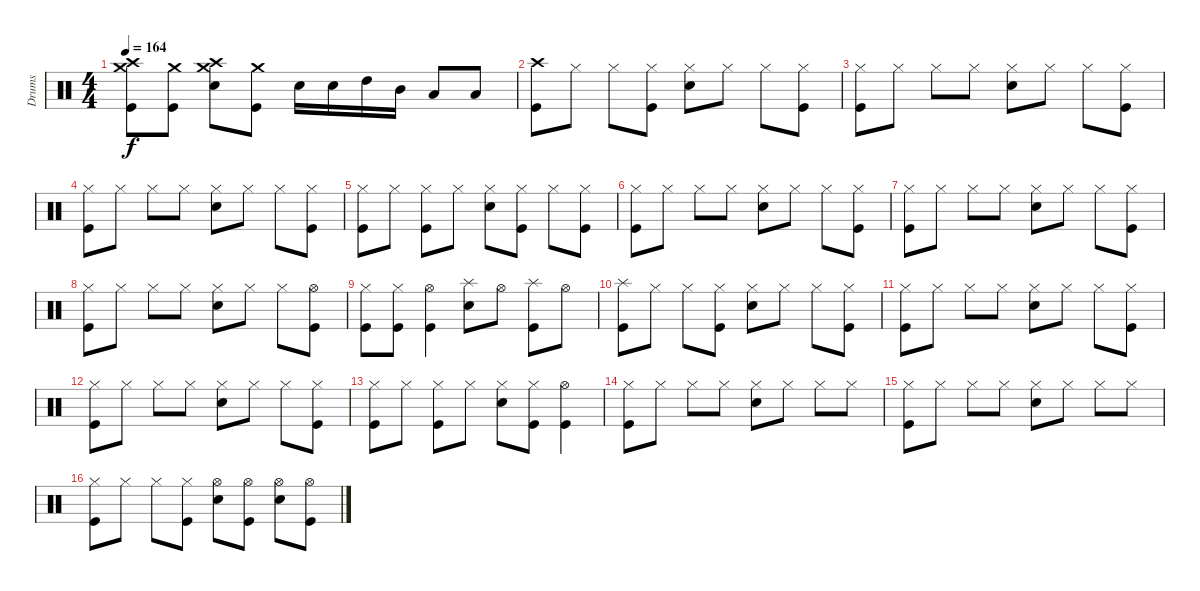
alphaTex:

\track ("Drums" "Drums") {instrument percussion}
\staff {score}
\articulation defaults
\ts (4 4)
\tempo 164
\clef neutral
\ks c
("Crash medium (hit)" "Kick (hit)" "Crash high (hit)").8{dy f} ("Crash medium (hit)" "Kick (hit)").8 ("Snare (hit) 2" "Crash medium (hit)" "Crash high (hit)").8 ("Crash medium (hit)" "Kick (hit)").8 "Snare (hit) 2".16 "Snare (hit) 2".16 "High Tom (hit)".16 "Mid Tom (hit)".16 "Low Tom (hit)".8 "Low Floor Tom (hit)".8 |
("Crash high (hit)" "Kick (hit)").8 "Hi-Hat (closed)".8 "Hi-Hat (closed)".8 ("Hi-Hat (closed)" "Kick (hit)").8 ("Snare (hit) 2" "Hi-Hat (closed)").8 "Hi-Hat (closed)".8 "Hi-Hat (closed)".8 ("Hi-Hat (closed)" "Kick (hit)").8 |
("Hi-Hat (closed)" "Kick (hit)").8 "Hi-Hat (closed)".8 "Hi-Hat (closed)".8 "Hi-Hat (closed)".8 ("Snare (hit) 2" "Hi-Hat (closed)").8 "Hi-Hat (closed)".8 "Hi-Hat (closed)".8 ("Hi-Hat (closed)" "Kick (hit)").8 |
("Hi-Hat (closed)" "Kick (hit)").8 "Hi-Hat (closed)".8 "Hi-Hat (closed)".8 "Hi-Hat (closed)".8 ("Snare (hit) 2" "Hi-Hat (closed)").8 "Hi-Hat (closed)".8 "Hi-Hat (closed)".8 ("Hi-Hat (closed)" "Kick (hit)").8 |
("Hi-Hat (closed)" "Kick (hit)").8 "Hi-Hat (closed)".8 ("Hi-Hat (closed)" "Kick (hit)").8 "Hi-Hat (closed)".8 ("Snare (hit) 2" "Hi-Hat (closed)").8 ("Hi-Hat (closed)" "Kick (hit)").8 "Hi-Hat (closed)".8 ("Hi-Hat (closed)" "Kick (hit)").8 |
("Hi-Hat (closed)" "Kick (hit)").8 "Hi-Hat (closed)".8 "Hi-Hat (closed)".8 "Hi-Hat (closed)".8 ("Snare (hit) 2" "Hi-Hat (closed)").8 "Hi-Hat (closed)".8 "Hi-Hat (closed)".8 ("Hi-Hat (closed)" "Kick (hit)").8 |
("Hi-Hat (closed)" "Kick (hit)").8 "Hi-Hat (closed)".8 "Hi-Hat (closed)".8 "Hi-Hat (closed)".8 ("Snare (hit) 2" "Hi-Hat (closed)").8 "Hi-Hat (closed)".8 "Hi-Hat (closed)".8 ("Hi-Hat (closed)" "Kick (hit)").8 |
("Hi-Hat (closed)" "Kick (hit)").8 "Hi-Hat (closed)".8 "Hi-Hat (closed)".8 "Hi-Hat (closed)".8 ("Snare (hit) 2" "Hi-Hat (closed)").8 "Hi-Hat (closed)".8 "Hi-Hat (closed)".8 ("Hi-Hat (open)" "Kick (hit)").8 |
("Hi-Hat (closed)" "Kick (hit)").8 ("Hi-Hat (closed)" "Kick (hit)").8 ("Hi-Hat (open)" "Kick (hit)").4 ("Snare (hit) 2" "Splash (hit)").8 "Hi-Hat (open)".8 ("Splash (hit)" "Kick (hit)").8 "Hi-Hat (open)".8 |
("Splash (hit)" "Kick (hit)").8 "Hi-Hat (closed)".8 "Hi-Hat (closed)".8 ("Hi-Hat (closed)" "Kick (hit)").8 ("Snare (hit) 2" "Hi-Hat (closed)").8 "Hi-Hat (closed)".8 "Hi-Hat (closed)".8 ("Hi-Hat (closed)" "Kick (hit)").8 |
("Hi-Hat (closed)" "Kick (hit)").8 "Hi-Hat (closed)".8 "Hi-Hat (closed)".8 "Hi-Hat (closed)".8 ("Snare (hit) 2" "Hi-Hat (closed)").8 "Hi-Hat (closed)".8 "Hi-Hat (closed)".8 ("Hi-Hat (closed)" "Kick (hit)").8 |
("Hi-Hat (closed)" "Kick (hit)").8 "Hi-Hat (closed)".8 "Hi-Hat (closed)".8 "Hi-Hat (closed)".8 ("Snare (hit) 2" "Hi-Hat (closed)").8 "Hi-Hat (closed)".8 "Hi-Hat (closed)".8 ("Hi-Hat (closed)" "Kick (hit)").8 |
("Hi-Hat (closed)" "Kick (hit)").8 "Hi-Hat (closed)".8 ("Hi-Hat (closed)" "Kick (hit)").8 "Hi-Hat (closed)".8 ("Snare (hit) 2" "Hi-Hat (closed)").8 ("Hi-Hat (closed)" "Kick (hit)").8 ("Hi-Hat (open)" "Kick (hit)").4 |
("Hi-Hat (closed)" "Kick (hit)").8 "Hi-Hat (closed)".8 "Hi-Hat (closed)".8 "Hi-Hat (closed)".8 ("Snare (hit) 2" "Hi-Hat (closed)").8 "Hi-Hat (closed)".8 "Hi-Hat (closed)".8 "Hi-Hat (closed)".8 |
("Hi-Hat (closed)" "Kick (hit)").8 "Hi-Hat (closed)".8 "Hi-Hat (closed)".8 "Hi-Hat (closed)".8 ("Snare (hit) 2" "Hi-Hat (closed)").8 "Hi-Hat (closed)".8 "Hi-Hat (closed)".8 "Hi-Hat (closed)".8 |
("Hi-Hat (closed)" "Kick (hit)").8 "Hi-Hat (closed)".8 "Hi-Hat (closed)".8 ("Hi-Hat (closed)" "Kick (hit)").8 ("Snare (hit) 2" "Hi-Hat (open)").8 ("Hi-Hat (open)" "Kick (hit)").8 ("Snare (hit) 2" "Hi-Hat (open)").8 ("Hi-Hat (open)" "Kick (hit)").8
